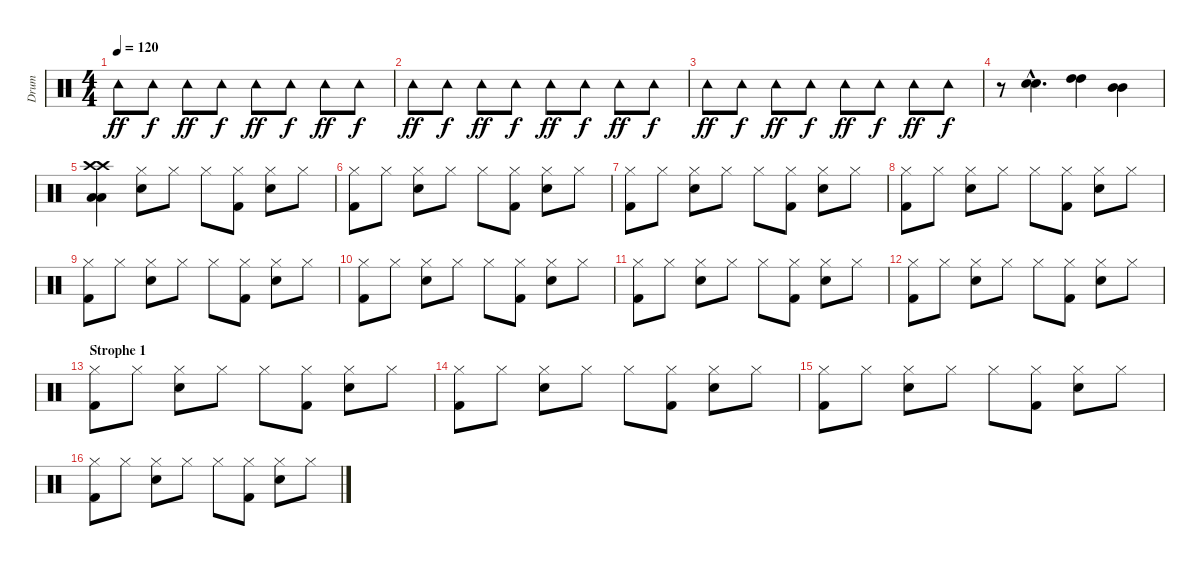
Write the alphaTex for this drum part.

\track ("Drum" "Drum") {instrument percussion}
\staff {score}
\articulation defaults
\ts (4 4)
\tempo 120
\clef neutral
\ks c "Tambourine (hit)".8{dy ff} "Tambourine (hit)".8{dy f} "Tambourine (hit)".8{dy ff} "Tambourine (hit)".8{dy f} "Tambourine (hit)".8{dy ff} "Tambourine (hit)".8{dy f} "Tambourine (hit)".8{dy ff} "Tambourine (hit)".8{dy f}
|
"Tambourine (hit)".8{dy ff} "Tambourine (hit)".8{dy f} "Tambourine (hit)".8{dy ff} "Tambourine (hit)".8{dy f} "Tambourine (hit)".8{dy ff} "Tambourine (hit)".8{dy f} "Tambourine (hit)".8{dy ff} "Tambourine (hit)".8{dy f} |
"Tambourine (hit)".8{dy ff} "Tambourine (hit)".8{dy f} "Tambourine (hit)".8{dy ff} "Tambourine (hit)".8{dy f} "Tambourine (hit)".8{dy ff} "Tambourine (hit)".8{dy f} "Tambourine (hit)".8{dy ff} "Tambourine (hit)".8{dy f} |
r.8 ("Snare (hit) 2"{hac} "Snare (hit) 2"{hac}).4{d} ("High Tom (hit)" "High Tom (hit)").4 ("Mid Tom (hit)" "Mid Tom (hit)").4 |
("Crash high (hit)" "Crash high (hit)" "Low Floor Tom (hit)" "Low Floor Tom (hit)").4 ("Snare (hit) 2" "Hi-Hat (closed)").8 "Hi-Hat (closed)".8 "Hi-Hat (closed)".8 ("Kick (hit) 2" "Hi-Hat (closed)").8 ("Snare (hit) 2" "Hi-Hat (closed)").8 "Hi-Hat (closed)".8 |
("Kick (hit) 2" "Hi-Hat (closed)").8 "Hi-Hat (closed)".8 ("Snare (hit) 2" "Hi-Hat (closed)").8 "Hi-Hat (closed)".8 "Hi-Hat (closed)".8 ("Kick (hit) 2" "Hi-Hat (closed)").8 ("Snare (hit) 2" "Hi-Hat (closed)").8 "Hi-Hat (closed)".8 |
("Kick (hit) 2" "Hi-Hat (closed)").8 "Hi-Hat (closed)".8 ("Snare (hit) 2" "Hi-Hat (closed)").8 "Hi-Hat (closed)".8 "Hi-Hat (closed)".8 ("Kick (hit) 2" "Hi-Hat (closed)").8 ("Snare (hit) 2" "Hi-Hat (closed)").8 "Hi-Hat (closed)".8 |
("Kick (hit) 2" "Hi-Hat (closed)").8 "Hi-Hat (closed)".8 ("Snare (hit) 2" "Hi-Hat (closed)").8 "Hi-Hat (closed)".8 "Hi-Hat (closed)".8 ("Kick (hit) 2" "Hi-Hat (closed)").8 ("Snare (hit) 2" "Hi-Hat (closed)").8 "Hi-Hat (closed)".8 |
("Kick (hit) 2" "Hi-Hat (closed)").8 "Hi-Hat (closed)".8 ("Snare (hit) 2" "Hi-Hat (closed)").8 "Hi-Hat (closed)".8 "Hi-Hat (closed)".8 ("Kick (hit) 2" "Hi-Hat (closed)").8 ("Snare (hit) 2" "Hi-Hat (closed)").8 "Hi-Hat (closed)".8 |
("Kick (hit) 2" "Hi-Hat (closed)").8 "Hi-Hat (closed)".8 ("Snare (hit) 2" "Hi-Hat (closed)").8 "Hi-Hat (closed)".8 "Hi-Hat (closed)".8 ("Kick (hit) 2" "Hi-Hat (closed)").8 ("Snare (hit) 2" "Hi-Hat (closed)").8 "Hi-Hat (closed)".8 |
("Kick (hit) 2" "Hi-Hat (closed)").8 "Hi-Hat (closed)".8 ("Snare (hit) 2" "Hi-Hat (closed)").8 "Hi-Hat (closed)".8 "Hi-Hat (closed)".8 ("Kick (hit) 2" "Hi-Hat (closed)").8 ("Snare (hit) 2" "Hi-Hat (closed)").8 "Hi-Hat (closed)".8 |
("Kick (hit) 2" "Hi-Hat (closed)").8 "Hi-Hat (closed)".8 ("Snare (hit) 2" "Hi-Hat (closed)").8 "Hi-Hat (closed)".8 "Hi-Hat (closed)".8 ("Kick (hit) 2" "Hi-Hat (closed)").8 ("Snare (hit) 2" "Hi-Hat (closed)").8 "Hi-Hat (closed)".8 |
\section ("" "Strophe 1")
("Kick (hit) 2" "Hi-Hat (closed)").8 "Hi-Hat (closed)".8 ("Snare (hit) 2" "Hi-Hat (closed)").8 "Hi-Hat (closed)".8 "Hi-Hat (closed)".8 ("Kick (hit) 2" "Hi-Hat (closed)").8 ("Snare (hit) 2" "Hi-Hat (closed)").8 "Hi-Hat (closed)".8 |
("Kick (hit) 2" "Hi-Hat (closed)").8 "Hi-Hat (closed)".8 ("Snare (hit) 2" "Hi-Hat (closed)").8 "Hi-Hat (closed)".8 "Hi-Hat (closed)".8 ("Kick (hit) 2" "Hi-Hat (closed)").8 ("Snare (hit) 2" "Hi-Hat (closed)").8 "Hi-Hat (closed)".8 |
("Kick (hit) 2" "Hi-Hat (closed)").8 "Hi-Hat (closed)".8 ("Snare (hit) 2" "Hi-Hat (closed)").8 "Hi-Hat (closed)".8 "Hi-Hat (closed)".8 ("Kick (hit) 2" "Hi-Hat (closed)").8 ("Snare (hit) 2" "Hi-Hat (closed)").8 "Hi-Hat (closed)".8 |
("Kick (hit) 2" "Hi-Hat (closed)").8 "Hi-Hat (closed)".8 ("Snare (hit) 2" "Hi-Hat (closed)").8 "Hi-Hat (closed)".8 "Hi-Hat (closed)".8 ("Kick (hit) 2" "Hi-Hat (closed)").8 ("Snare (hit) 2" "Hi-Hat (closed)").8 "Hi-Hat (closed)".8
